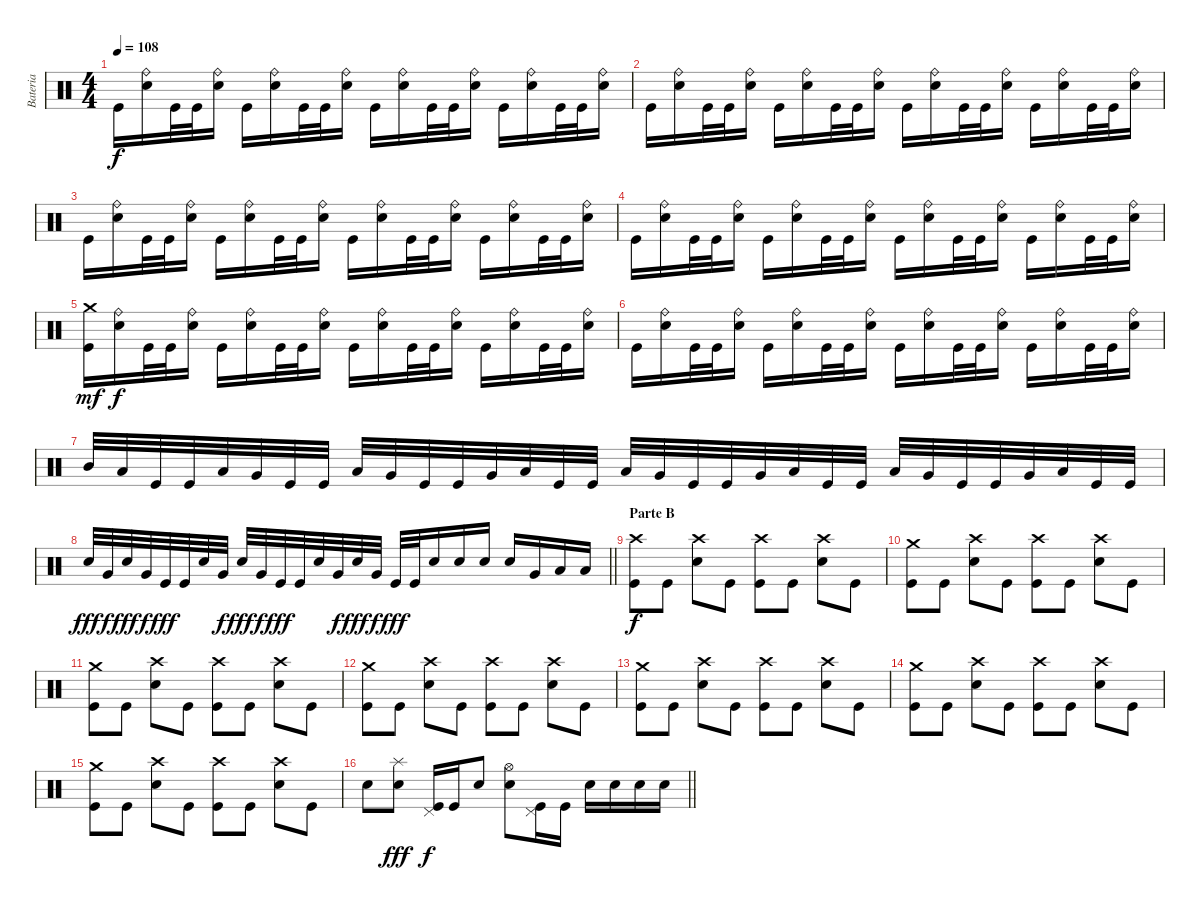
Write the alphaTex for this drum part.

\track ("Bateria" "Bateria") {instrument percussion}
\staff {score}
\articulation defaults
\ts (4 4)
\section ("" "")
\tempo 108
\clef neutral
\ks c "Kick (hit)".16{dy f}
("Ride (bell)" "Snare (hit) 2").16 "Kick (hit)".32 "Kick (hit)".32 ("Ride (bell)" "Snare (hit) 2").16 "Kick (hit)".16 ("Ride (bell)" "Snare (hit) 2").16 "Kick (hit)".32 "Kick (hit)".32 ("Ride (bell)" "Snare (hit) 2").16 "Kick (hit)".16 ("Ride (bell)" "Snare (hit) 2").16 "Kick (hit)".32 "Kick (hit)".32 ("Ride (bell)" "Snare (hit) 2").16 "Kick (hit)".16 ("Ride (bell)" "Snare (hit) 2").16 "Kick (hit)".32 "Kick (hit)".32 ("Ride (bell)" "Snare (hit) 2").16 |
"Kick (hit)".16 ("Ride (bell)" "Snare (hit) 2").16 "Kick (hit)".32 "Kick (hit)".32 ("Ride (bell)" "Snare (hit) 2").16 "Kick (hit)".16 ("Ride (bell)" "Snare (hit) 2").16 "Kick (hit)".32 "Kick (hit)".32 ("Ride (bell)" "Snare (hit) 2").16 "Kick (hit)".16 ("Ride (bell)" "Snare (hit) 2").16 "Kick (hit)".32 "Kick (hit)".32 ("Ride (bell)" "Snare (hit) 2").16 "Kick (hit)".16 ("Ride (bell)" "Snare (hit) 2").16 "Kick (hit)".32 "Kick (hit)".32 ("Ride (bell)" "Snare (hit) 2").16 |
"Kick (hit)".16 ("Ride (bell)" "Snare (hit) 2").16 "Kick (hit)".32 "Kick (hit)".32 ("Ride (bell)" "Snare (hit) 2").16 "Kick (hit)".16 ("Ride (bell)" "Snare (hit) 2").16 "Kick (hit)".32 "Kick (hit)".32 ("Ride (bell)" "Snare (hit) 2").16 "Kick (hit)".16 ("Ride (bell)" "Snare (hit) 2").16 "Kick (hit)".32 "Kick (hit)".32 ("Ride (bell)" "Snare (hit) 2").16 "Kick (hit)".16 ("Ride (bell)" "Snare (hit) 2").16 "Kick (hit)".32 "Kick (hit)".32 ("Ride (bell)" "Snare (hit) 2").16 |
"Kick (hit)".16 ("Ride (bell)" "Snare (hit) 2").16 "Kick (hit)".32 "Kick (hit)".32 ("Ride (bell)" "Snare (hit) 2").16 "Kick (hit)".16 ("Ride (bell)" "Snare (hit) 2").16 "Kick (hit)".32 "Kick (hit)".32 ("Ride (bell)" "Snare (hit) 2").16 "Kick (hit)".16 ("Ride (bell)" "Snare (hit) 2").16 "Kick (hit)".32 "Kick (hit)".32 ("Ride (bell)" "Snare (hit) 2").16 "Kick (hit)".16 ("Ride (bell)" "Snare (hit) 2").16 "Kick (hit)".32 "Kick (hit)".32 ("Ride (bell)" "Snare (hit) 2").16 |
("Crash medium (hit)" "Kick (hit)").16{dy mf} ("Ride (bell)" "Snare (hit) 2").16{dy f} "Kick (hit)".32 "Kick (hit)".32 ("Ride (bell)" "Snare (hit) 2").16 "Kick (hit)".16 ("Ride (bell)" "Snare (hit) 2").16 "Kick (hit)".32 "Kick (hit)".32 ("Ride (bell)" "Snare (hit) 2").16 "Kick (hit)".16 ("Ride (bell)" "Snare (hit) 2").16 "Kick (hit)".32 "Kick (hit)".32 ("Ride (bell)" "Snare (hit) 2").16 "Kick (hit)".16 ("Ride (bell)" "Snare (hit) 2").16 "Kick (hit)".32 "Kick (hit)".32 ("Ride (bell)" "Snare (hit) 2").16 |
"Kick (hit)".16 ("Ride (bell)" "Snare (hit) 2").16 "Kick (hit)".32 "Kick (hit)".32 ("Ride (bell)" "Snare (hit) 2").16 "Kick (hit)".16 ("Ride (bell)" "Snare (hit) 2").16 "Kick (hit)".32 "Kick (hit)".32 ("Ride (bell)" "Snare (hit) 2").16 "Kick (hit)".16 ("Ride (bell)" "Snare (hit) 2").16 "Kick (hit)".32 "Kick (hit)".32 ("Ride (bell)" "Snare (hit) 2").16 "Kick (hit)".16 ("Ride (bell)" "Snare (hit) 2").16 "Kick (hit)".32 "Kick (hit)".32 ("Ride (bell)" "Snare (hit) 2").16 |
"Mid Tom (hit)".32 "Low Tom (hit)".32 "Kick (hit)".32 "Kick (hit)".32 "Low Tom (hit)".32 "Very Low Tom (hit)".32 "Kick (hit)".32 "Kick (hit)".32 "Low Tom (hit)".32 "Very Low Tom (hit)".32 "Kick (hit)".32 "Kick (hit)".32 "Very Low Tom (hit)".32 "Low Floor Tom (hit)".32 "Kick (hit)".32 "Kick (hit)".32 "Low Tom (hit)".32 "Very Low Tom (hit)".32 "Kick (hit)".32 "Kick (hit)".32 "Very Low Tom (hit)".32 "Low Floor Tom (hit)".32 "Kick (hit)".32 "Kick (hit)".32 "Low Tom (hit)".32 "Very Low Tom (hit)".32 "Kick (hit)".32 "Kick (hit)".32 "Very Low Tom (hit)".32 "Low Floor Tom (hit)".32 "Kick (hit)".32 "Kick (hit)".32 |
\barLineRight lightlight "Snare (hit) 2".32{dy fff} "Very Low Tom (hit)".32{dy f} "Snare (hit) 2".32{dy fff} "Very Low Tom (hit)".32{dy f} "Kick (hit)".32{dy fff} "Kick (hit)".32 "Snare (hit) 2".32 "Very Low Tom (hit)".32{dy f} "Snare (hit) 2".32{dy fff} "Very Low Tom (hit)".32{dy f} "Kick (hit)".32{dy fff} "Kick (hit)".32 "Snare (hit) 2".32 "Very Low Tom (hit)".32{dy f} "Snare (hit) 2".32{dy fff} "Very Low Tom (hit)".32{dy f} "Kick (hit)".32{dy fff} "Kick (hit)".32 "Snare (hit) 2".16 "Snare (hit) 2".16 "Snare (hit) 2".16 "Snare (hit) 2".16 "Very Low Tom (hit)".16 "Low Floor Tom (hit)".16 "Low Floor Tom (hit)".16
|
\section ("" "Parte B")
("Crash high (hit)" "Kick (hit)").8{dy f} "Kick (hit)".8 ("Crash high (hit)" "Snare (hit) 2").8 "Kick (hit)".8 ("Crash high (hit)" "Kick (hit)").8 "Kick (hit)".8 ("Crash high (hit)" "Snare (hit) 2").8 "Kick (hit)".8 |
("Crash medium (hit)" "Kick (hit)").8 "Kick (hit)".8 ("Crash high (hit)" "Snare (hit) 2").8 "Kick (hit)".8 ("Crash high (hit)" "Kick (hit)").8 "Kick (hit)".8 ("Crash high (hit)" "Snare (hit) 2").8 "Kick (hit)".8 |
("Crash medium (hit)" "Kick (hit)").8 "Kick (hit)".8 ("Crash high (hit)" "Snare (hit) 2").8 "Kick (hit)".8 ("Crash high (hit)" "Kick (hit)").8 "Kick (hit)".8 ("Crash high (hit)" "Snare (hit) 2").8 "Kick (hit)".8 |
("Crash medium (hit)" "Kick (hit)").8 "Kick (hit)".8 ("Crash high (hit)" "Snare (hit) 2").8 "Kick (hit)".8 ("Crash high (hit)" "Kick (hit)").8 "Kick (hit)".8 ("Crash high (hit)" "Snare (hit) 2").8 "Kick (hit)".8 |
("Crash medium (hit)" "Kick (hit)").8 "Kick (hit)".8 ("Crash high (hit)" "Snare (hit) 2").8 "Kick (hit)".8 ("Crash high (hit)" "Kick (hit)").8 "Kick (hit)".8 ("Crash high (hit)" "Snare (hit) 2").8 "Kick (hit)".8 |
("Crash medium (hit)" "Kick (hit)").8 "Kick (hit)".8 ("Crash high (hit)" "Snare (hit) 2").8 "Kick (hit)".8 ("Crash high (hit)" "Kick (hit)").8 "Kick (hit)".8 ("Crash high (hit)" "Snare (hit) 2").8 "Kick (hit)".8 |
("Crash medium (hit)" "Kick (hit)").8 "Kick (hit)".8 ("Crash high (hit)" "Snare (hit) 2").8 "Kick (hit)".8 ("Crash high (hit)" "Kick (hit)").8 "Kick (hit)".8 ("Crash high (hit)" "Snare (hit) 2").8 "Kick (hit)".8 |
\barLineRight lightlight "Snare (hit) 2".8
("Splash (hit)" "Snare (hit) 2").8{dy fff} ("Pedal Hi-Hat (hit)" "Kick (hit)").16{dy f} "Kick (hit)".16 "Snare (hit) 2".8 ("Hi-Hat (open)" "Snare (hit) 2").8 ("Pedal Hi-Hat (hit)" "Kick (hit)").16 "Kick (hit)".16 "Snare (hit) 2".16 "Snare (hit) 2".16 "Snare (hit) 2".16 "Snare (hit) 2".16
